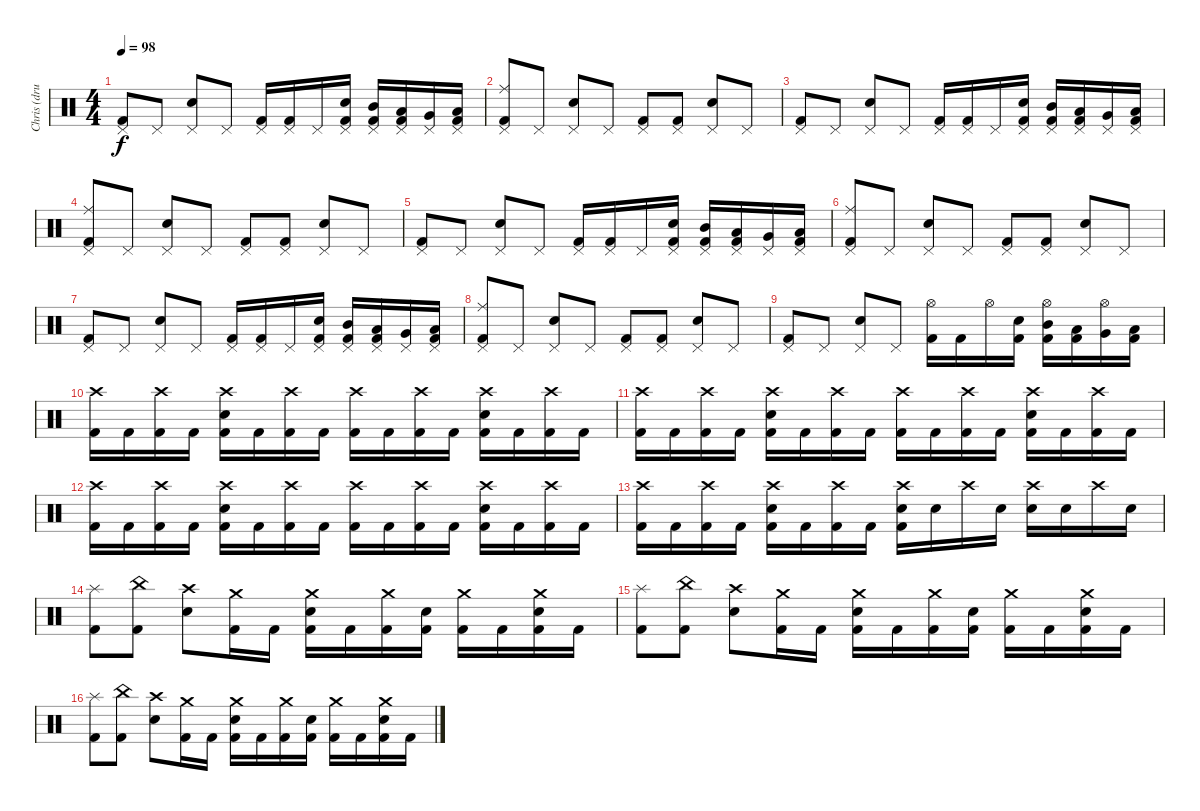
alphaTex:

\track ("Chris (drums)" "Chris (dru") {instrument percussion}
\staff {score}
\articulation defaults
\ts (4 4)
\tempo 98
\clef neutral
\ks c
("Pedal Hi-Hat (hit)" "Kick (hit) 2").8{dy f} "Pedal Hi-Hat (hit)".8 ("Pedal Hi-Hat (hit)" "Electric Snare (hit)").8 "Pedal Hi-Hat (hit)".8 ("Pedal Hi-Hat (hit)" "Kick (hit) 2").16 ("Pedal Hi-Hat (hit)" "Kick (hit) 2").16 "Pedal Hi-Hat (hit)".16 ("Pedal Hi-Hat (hit)" "Electric Snare (hit)" "Kick (hit) 2").16 ("Pedal Hi-Hat (hit)" "Mid Tom (hit)" "Kick (hit) 2").16 ("Pedal Hi-Hat (hit)" "Low Tom (hit)" "Kick (hit) 2").16 ("Pedal Hi-Hat (hit)" "Very Low Tom (hit)").16 ("Pedal Hi-Hat (hit)" "Low Floor Tom (hit)" "Kick (hit) 2").16 |
("Ride (middle)" "Pedal Hi-Hat (hit)" "Kick (hit) 2").8 "Pedal Hi-Hat (hit)".8 ("Pedal Hi-Hat (hit)" "Electric Snare (hit)").8 "Pedal Hi-Hat (hit)".8 ("Pedal Hi-Hat (hit)" "Kick (hit) 2").8 ("Pedal Hi-Hat (hit)" "Kick (hit) 2").8 ("Pedal Hi-Hat (hit)" "Electric Snare (hit)").8 "Pedal Hi-Hat (hit)".8 |
("Pedal Hi-Hat (hit)" "Kick (hit) 2").8 "Pedal Hi-Hat (hit)".8 ("Pedal Hi-Hat (hit)" "Electric Snare (hit)").8 "Pedal Hi-Hat (hit)".8 ("Pedal Hi-Hat (hit)" "Kick (hit) 2").16 ("Pedal Hi-Hat (hit)" "Kick (hit) 2").16 "Pedal Hi-Hat (hit)".16 ("Pedal Hi-Hat (hit)" "Electric Snare (hit)" "Kick (hit) 2").16 ("Pedal Hi-Hat (hit)" "Mid Tom (hit)" "Kick (hit) 2").16 ("Pedal Hi-Hat (hit)" "Low Tom (hit)" "Kick (hit) 2").16 ("Pedal Hi-Hat (hit)" "Very Low Tom (hit)").16 ("Pedal Hi-Hat (hit)" "Low Floor Tom (hit)" "Kick (hit) 2").16 |
("Ride (middle)" "Pedal Hi-Hat (hit)" "Kick (hit) 2").8 "Pedal Hi-Hat (hit)".8 ("Pedal Hi-Hat (hit)" "Electric Snare (hit)").8 "Pedal Hi-Hat (hit)".8 ("Pedal Hi-Hat (hit)" "Kick (hit) 2").8 ("Pedal Hi-Hat (hit)" "Kick (hit) 2").8 ("Pedal Hi-Hat (hit)" "Electric Snare (hit)").8 "Pedal Hi-Hat (hit)".8 |
("Pedal Hi-Hat (hit)" "Kick (hit) 2").8 "Pedal Hi-Hat (hit)".8 ("Pedal Hi-Hat (hit)" "Electric Snare (hit)").8 "Pedal Hi-Hat (hit)".8 ("Pedal Hi-Hat (hit)" "Kick (hit) 2").16 ("Pedal Hi-Hat (hit)" "Kick (hit) 2").16 "Pedal Hi-Hat (hit)".16 ("Pedal Hi-Hat (hit)" "Electric Snare (hit)" "Kick (hit) 2").16 ("Pedal Hi-Hat (hit)" "Mid Tom (hit)" "Kick (hit) 2").16 ("Pedal Hi-Hat (hit)" "Low Tom (hit)" "Kick (hit) 2").16 ("Pedal Hi-Hat (hit)" "Very Low Tom (hit)").16 ("Pedal Hi-Hat (hit)" "Low Floor Tom (hit)" "Kick (hit) 2").16 |
("Ride (middle)" "Pedal Hi-Hat (hit)" "Kick (hit) 2").8 "Pedal Hi-Hat (hit)".8 ("Pedal Hi-Hat (hit)" "Electric Snare (hit)").8 "Pedal Hi-Hat (hit)".8 ("Pedal Hi-Hat (hit)" "Kick (hit) 2").8 ("Pedal Hi-Hat (hit)" "Kick (hit) 2").8 ("Pedal Hi-Hat (hit)" "Electric Snare (hit)").8 "Pedal Hi-Hat (hit)".8 |
("Pedal Hi-Hat (hit)" "Kick (hit) 2").8 "Pedal Hi-Hat (hit)".8 ("Pedal Hi-Hat (hit)" "Electric Snare (hit)").8 "Pedal Hi-Hat (hit)".8 ("Pedal Hi-Hat (hit)" "Kick (hit) 2").16 ("Pedal Hi-Hat (hit)" "Kick (hit) 2").16 "Pedal Hi-Hat (hit)".16 ("Pedal Hi-Hat (hit)" "Electric Snare (hit)" "Kick (hit) 2").16 ("Pedal Hi-Hat (hit)" "Mid Tom (hit)" "Kick (hit) 2").16 ("Pedal Hi-Hat (hit)" "Low Tom (hit)" "Kick (hit) 2").16 ("Pedal Hi-Hat (hit)" "Very Low Tom (hit)").16 ("Pedal Hi-Hat (hit)" "Low Floor Tom (hit)" "Kick (hit) 2").16 |
("Ride (middle)" "Pedal Hi-Hat (hit)" "Kick (hit) 2").8 "Pedal Hi-Hat (hit)".8 ("Pedal Hi-Hat (hit)" "Electric Snare (hit)").8 "Pedal Hi-Hat (hit)".8 ("Pedal Hi-Hat (hit)" "Kick (hit) 2").8 ("Pedal Hi-Hat (hit)" "Kick (hit) 2").8 ("Pedal Hi-Hat (hit)" "Electric Snare (hit)").8 "Pedal Hi-Hat (hit)".8 |
("Pedal Hi-Hat (hit)" "Kick (hit) 2").8 "Pedal Hi-Hat (hit)".8 ("Pedal Hi-Hat (hit)" "Electric Snare (hit)").8 "Pedal Hi-Hat (hit)".8 ("Hi-Hat (open)" "Kick (hit) 2").16 "Kick (hit) 2".16 "Hi-Hat (open)".16 ("Electric Snare (hit)" "Kick (hit) 2").16 ("Hi-Hat (open)" "Mid Tom (hit)" "Kick (hit) 2").16 ("Low Tom (hit)" "Kick (hit) 2").16 ("Hi-Hat (open)" "Very Low Tom (hit)").16 ("Low Floor Tom (hit)" "Kick (hit) 2").16 |
("Crash high (hit)" "Kick (hit) 2").16 "Kick (hit) 2".16 ("Crash high (hit)" "Kick (hit) 2").16 "Kick (hit) 2".16 ("Crash high (hit)" "Electric Snare (hit)" "Kick (hit) 2").16 "Kick (hit) 2".16 ("Crash high (hit)" "Kick (hit) 2").16 "Kick (hit) 2".16 ("Crash high (hit)" "Kick (hit) 2").16 "Kick (hit) 2".16 ("Crash high (hit)" "Kick (hit) 2").16 "Kick (hit) 2".16 ("Crash high (hit)" "Electric Snare (hit)" "Kick (hit) 2").16 "Kick (hit) 2".16 ("Crash high (hit)" "Kick (hit) 2").16 "Kick (hit) 2".16 |
("Crash high (hit)" "Kick (hit) 2").16 "Kick (hit) 2".16 ("Crash high (hit)" "Kick (hit) 2").16 "Kick (hit) 2".16 ("Crash high (hit)" "Electric Snare (hit)" "Kick (hit) 2").16 "Kick (hit) 2".16 ("Crash high (hit)" "Kick (hit) 2").16 "Kick (hit) 2".16 ("Crash high (hit)" "Kick (hit) 2").16 "Kick (hit) 2".16 ("Crash high (hit)" "Kick (hit) 2").16 "Kick (hit) 2".16 ("Crash high (hit)" "Electric Snare (hit)" "Kick (hit) 2").16 "Kick (hit) 2".16 ("Crash high (hit)" "Kick (hit) 2").16 "Kick (hit) 2".16 |
("Crash high (hit)" "Kick (hit) 2").16 "Kick (hit) 2".16 ("Crash high (hit)" "Kick (hit) 2").16 "Kick (hit) 2".16 ("Crash high (hit)" "Electric Snare (hit)" "Kick (hit) 2").16 "Kick (hit) 2".16 ("Crash high (hit)" "Kick (hit) 2").16 "Kick (hit) 2".16 ("Crash high (hit)" "Kick (hit) 2").16 "Kick (hit) 2".16 ("Crash high (hit)" "Kick (hit) 2").16 "Kick (hit) 2".16 ("Crash high (hit)" "Electric Snare (hit)" "Kick (hit) 2").16 "Kick (hit) 2".16 ("Crash high (hit)" "Kick (hit) 2").16 "Kick (hit) 2".16 |
("Crash high (hit)" "Kick (hit) 2").16 "Kick (hit) 2".16 ("Crash high (hit)" "Kick (hit) 2").16 "Kick (hit) 2".16 ("Crash high (hit)" "Electric Snare (hit)" "Kick (hit) 2").16 "Kick (hit) 2".16 ("Crash high (hit)" "Kick (hit) 2").16 "Kick (hit) 2".16 ("Crash high (hit)" "Electric Snare (hit)" "Kick (hit) 2").16 "Electric Snare (hit)".16 "Crash high (hit)".16 "Electric Snare (hit)".16 ("Crash high (hit)" "Electric Snare (hit)").16 "Electric Snare (hit)".16 "Crash high (hit)".16 "Electric Snare (hit)".16 |
("Splash (hit)" "Kick (hit) 2").8 ("China (hit)" "Kick (hit) 2").8 ("Crash high (hit)" "Electric Snare (hit)").8 ("Crash medium (hit)" "Kick (hit) 2").16 "Kick (hit) 2".16 ("Crash medium (hit)" "Electric Snare (hit)" "Kick (hit) 2").16 "Kick (hit) 2".16 ("Crash medium (hit)" "Kick (hit) 2").16 ("Electric Snare (hit)" "Kick (hit) 2").16 ("Crash medium (hit)" "Kick (hit) 2").16 "Kick (hit) 2".16 ("Crash medium (hit)" "Electric Snare (hit)" "Kick (hit) 2").16 "Kick (hit) 2".16 |
("Splash (hit)" "Kick (hit) 2").8 ("China (hit)" "Kick (hit) 2").8 ("Crash high (hit)" "Electric Snare (hit)").8 ("Crash medium (hit)" "Kick (hit) 2").16 "Kick (hit) 2".16 ("Crash medium (hit)" "Electric Snare (hit)" "Kick (hit) 2").16 "Kick (hit) 2".16 ("Crash medium (hit)" "Kick (hit) 2").16 ("Electric Snare (hit)" "Kick (hit) 2").16 ("Crash medium (hit)" "Kick (hit) 2").16 "Kick (hit) 2".16 ("Crash medium (hit)" "Electric Snare (hit)" "Kick (hit) 2").16 "Kick (hit) 2".16 |
("Splash (hit)" "Kick (hit) 2").8 ("China (hit)" "Kick (hit) 2").8 ("Crash high (hit)" "Electric Snare (hit)").8 ("Crash medium (hit)" "Kick (hit) 2").16 "Kick (hit) 2".16 ("Crash medium (hit)" "Electric Snare (hit)" "Kick (hit) 2").16 "Kick (hit) 2".16 ("Crash medium (hit)" "Kick (hit) 2").16 ("Electric Snare (hit)" "Kick (hit) 2").16 ("Crash medium (hit)" "Kick (hit) 2").16 "Kick (hit) 2".16 ("Crash medium (hit)" "Electric Snare (hit)" "Kick (hit) 2").16 "Kick (hit) 2".16
